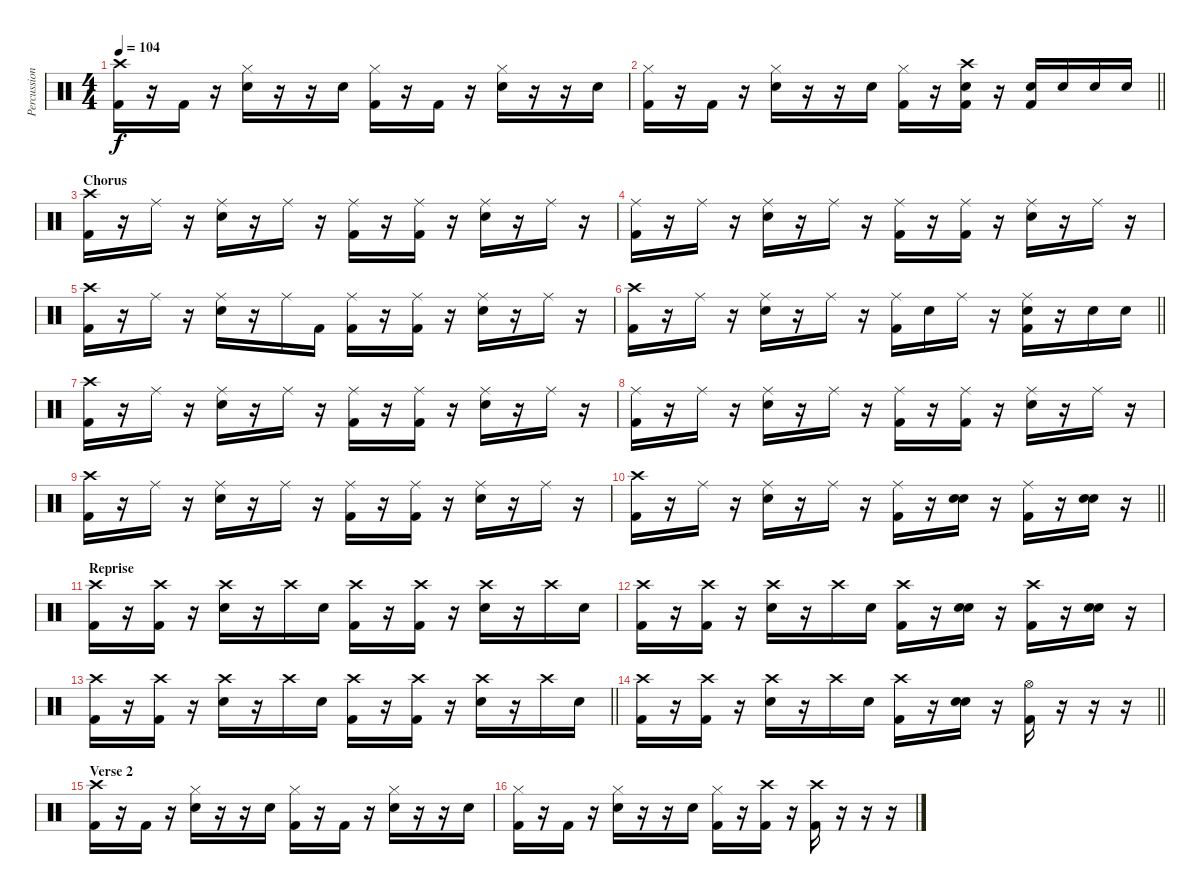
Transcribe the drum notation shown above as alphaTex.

\track ("Percussion" "Percussion") {instrument percussion}
\staff {score}
\articulation defaults
\ts (4 4)
\tempo 104
\clef neutral
\ks c
("Crash high (hit)" "Kick (hit) 2").16{dy f} r.16 "Kick (hit) 2".16 r.16 ("Electric Snare (hit)" "Hi-Hat (closed)").16 r.16 r.16 "Electric Snare (hit)".16 ("Hi-Hat (closed)" "Kick (hit) 2").16 r.16 "Kick (hit) 2".16 r.16 ("Electric Snare (hit)" "Hi-Hat (closed)").16 r.16 r.16 "Electric Snare (hit)".16 |
\barLineRight lightlight
("Hi-Hat (closed)" "Kick (hit) 2").16 r.16 "Kick (hit) 2".16 r.16 ("Electric Snare (hit)" "Hi-Hat (closed)").16 r.16 r.16 "Electric Snare (hit)".16 ("Hi-Hat (closed)" "Kick (hit) 2").16 r.16 ("Electric Snare (hit)" "Crash high (hit)" "Kick (hit) 2").16 r.16 ("Electric Snare (hit)" "Kick (hit) 2").16 "Electric Snare (hit)".16 "Electric Snare (hit)".16 "Electric Snare (hit)".16 |
\section ("" "Chorus")
("Crash high (hit)" "Kick (hit) 2").16 r.16 "Ride (middle)".16 r.16 ("Electric Snare (hit)" "Ride (middle)").16 r.16 "Ride (middle)".16 r.16 ("Ride (middle)" "Kick (hit) 2").16 r.16 ("Ride (middle)" "Kick (hit) 2").16 r.16 ("Electric Snare (hit)" "Ride (middle)").16 r.16 "Ride (middle)".16 r.16 |
("Ride (middle)" "Kick (hit) 2").16 r.16 "Ride (middle)".16 r.16 ("Electric Snare (hit)" "Ride (middle)").16 r.16 "Ride (middle)".16 r.16 ("Ride (middle)" "Kick (hit) 2").16 r.16 ("Ride (middle)" "Kick (hit) 2").16 r.16 ("Electric Snare (hit)" "Ride (middle)").16 r.16 "Ride (middle)".16 r.16 |
("Crash high (hit)" "Kick (hit) 2").16 r.16 "Ride (middle)".16 r.16 ("Electric Snare (hit)" "Ride (middle)").16 r.16 "Ride (middle)".16 "Kick (hit) 2".16 ("Ride (middle)" "Kick (hit) 2").16 r.16 ("Ride (middle)" "Kick (hit) 2").16 r.16 ("Electric Snare (hit)" "Ride (middle)").16 r.16 "Ride (middle)".16 r.16 |
\barLineRight lightlight
("Crash high (hit)" "Kick (hit) 2").16 r.16 "Ride (middle)".16 r.16 ("Electric Snare (hit)" "Ride (middle)").16 r.16 "Ride (middle)".16 r.16 ("Ride (middle)" "Kick (hit) 2").16 "Electric Snare (hit)".16 "Ride (middle)".16 r.16 ("Electric Snare (hit)" "Ride (middle)" "Kick (hit) 2").16 r.16 "Electric Snare (hit)".16 "Electric Snare (hit)".16 |
("Crash high (hit)" "Kick (hit) 2").16 r.16 "Ride (middle)".16 r.16 ("Electric Snare (hit)" "Ride (middle)").16 r.16 "Ride (middle)".16 r.16 ("Ride (middle)" "Kick (hit) 2").16 r.16 ("Ride (middle)" "Kick (hit) 2").16 r.16 ("Electric Snare (hit)" "Ride (middle)").16 r.16 "Ride (middle)".16 r.16 |
("Ride (middle)" "Kick (hit) 2").16 r.16 "Ride (middle)".16 r.16 ("Electric Snare (hit)" "Ride (middle)").16 r.16 "Ride (middle)".16 r.16 ("Ride (middle)" "Kick (hit) 2").16 r.16 ("Ride (middle)" "Kick (hit) 2").16 r.16 ("Electric Snare (hit)" "Ride (middle)").16 r.16 "Ride (middle)".16 r.16 |
("Crash high (hit)" "Kick (hit) 2").16 r.16 "Ride (middle)".16 r.16 ("Electric Snare (hit)" "Ride (middle)").16 r.16 "Ride (middle)".16 r.16 ("Ride (middle)" "Kick (hit) 2").16 r.16 ("Ride (middle)" "Kick (hit) 2").16 r.16 ("Electric Snare (hit)" "Ride (middle)").16 r.16 "Ride (middle)".16 r.16 |
\barLineRight lightlight
("Crash high (hit)" "Kick (hit) 2").16 r.16 "Ride (middle)".16 r.16 ("Electric Snare (hit)" "Ride (middle)").16 r.16 "Ride (middle)".16 r.16 ("Ride (middle)" "Kick (hit) 2").16 r.16 ("Electric Snare (hit)" "Electric Snare (hit)").16 r.16 ("Ride (middle)" "Kick (hit) 2").16 r.16 ("Electric Snare (hit)" "Electric Snare (hit)").16 r.16 |
\section ("" "Reprise")
("Crash high (hit)" "Kick (hit) 2").16 r.16 ("Crash high (hit)" "Kick (hit) 2").16 r.16 ("Electric Snare (hit)" "Crash high (hit)").16 r.16 "Crash high (hit)".16 "Electric Snare (hit)".16 ("Crash high (hit)" "Kick (hit) 2").16 r.16 ("Crash high (hit)" "Kick (hit) 2").16 r.16 ("Electric Snare (hit)" "Crash high (hit)").16 r.16 "Crash high (hit)".16 "Electric Snare (hit)".16 |
("Crash high (hit)" "Kick (hit) 2").16 r.16 ("Crash high (hit)" "Kick (hit) 2").16 r.16 ("Electric Snare (hit)" "Crash high (hit)").16 r.16 "Crash high (hit)".16 "Electric Snare (hit)".16 ("Crash high (hit)" "Kick (hit) 2").16 r.16 ("Electric Snare (hit)" "Electric Snare (hit)").16 r.16 ("Crash high (hit)" "Kick (hit) 2").16 r.16 ("Electric Snare (hit)" "Electric Snare (hit)").16 r.16 |
\barLineRight lightlight
("Crash high (hit)" "Kick (hit) 2").16 r.16 ("Crash high (hit)" "Kick (hit) 2").16 r.16 ("Electric Snare (hit)" "Crash high (hit)").16 r.16 "Crash high (hit)".16 "Electric Snare (hit)".16 ("Crash high (hit)" "Kick (hit) 2").16 r.16 ("Crash high (hit)" "Kick (hit) 2").16 r.16 ("Electric Snare (hit)" "Crash high (hit)").16 r.16 "Crash high (hit)".16 "Electric Snare (hit)".16 |
\barLineRight lightlight
("Crash high (hit)" "Kick (hit) 2").16 r.16 ("Crash high (hit)" "Kick (hit) 2").16 r.16 ("Electric Snare (hit)" "Crash high (hit)").16 r.16 "Crash high (hit)".16 "Electric Snare (hit)".16 ("Crash high (hit)" "Kick (hit) 2").16 r.16 ("Electric Snare (hit)" "Electric Snare (hit)").16 r.16 ("Hi-Hat (open)" "Kick (hit) 2").16 r.16 r.16 r.16 |
\section ("" "Verse 2")
("Crash high (hit)" "Kick (hit) 2").16 r.16 "Kick (hit) 2".16 r.16 ("Electric Snare (hit)" "Hi-Hat (closed)").16 r.16 r.16 "Electric Snare (hit)".16 ("Hi-Hat (closed)" "Kick (hit) 2").16 r.16 "Kick (hit) 2".16 r.16 ("Electric Snare (hit)" "Hi-Hat (closed)").16 r.16 r.16 "Electric Snare (hit)".16 |
("Hi-Hat (closed)" "Kick (hit) 2").16 r.16 "Kick (hit) 2".16 r.16 ("Electric Snare (hit)" "Hi-Hat (closed)").16 r.16 r.16 "Electric Snare (hit)".16 ("Hi-Hat (closed)" "Kick (hit) 2").16 r.16 ("Crash high (hit)" "Kick (hit) 2").16 r.16 ("Crash high (hit)" "Kick (hit) 2").16 r.16 r.16 r.16
